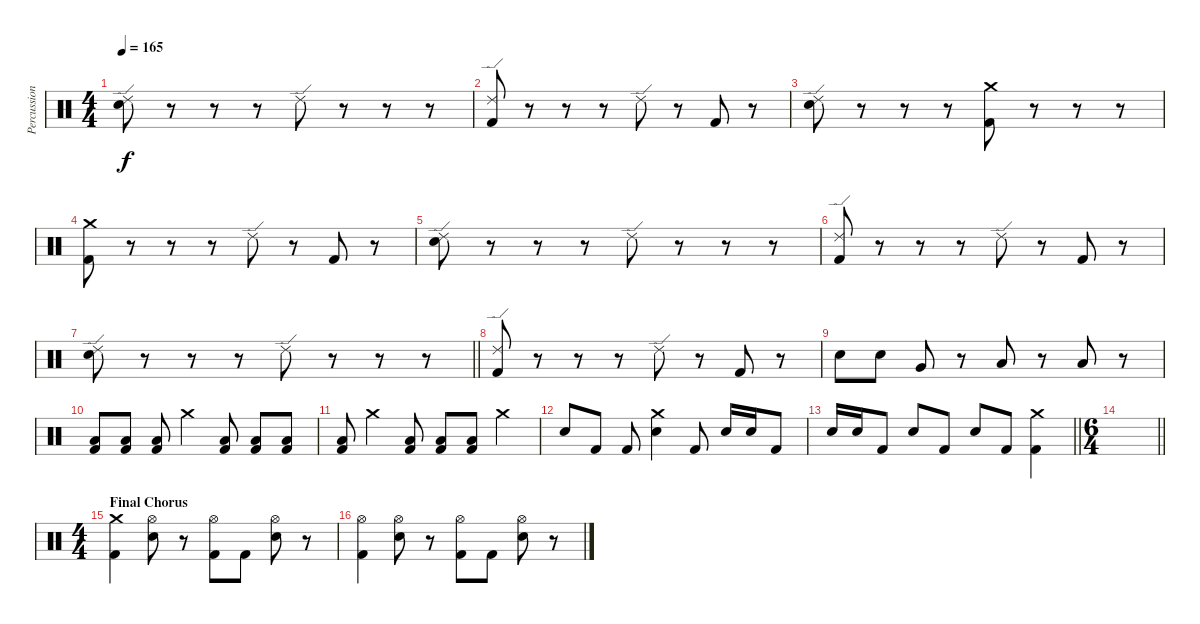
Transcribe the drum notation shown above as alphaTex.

\track ("Percussion" "Percussion") {instrument percussion}
\staff {score}
\articulation defaults
\ts (4 4)
\tempo 165
\clef neutral
\ks c
("Ride (edge) 2" "Electric Snare (hit)").8{dy f} r.8 r.8 r.8 "Ride (edge) 2".8 r.8 r.8 r.8 |
("Ride (edge) 2" "Kick (hit) 2").8 r.8 r.8 r.8 "Ride (edge) 2".8 r.8 "Kick (hit) 2".8 r.8 |
("Ride (edge) 2" "Electric Snare (hit)").8 r.8 r.8 r.8 ("Crash medium (hit)" "Kick (hit) 2").8 r.8 r.8 r.8 |
("Crash medium (hit)" "Kick (hit) 2").8 r.8 r.8 r.8 "Ride (edge) 2".8 r.8 "Kick (hit) 2".8 r.8 |
("Ride (edge) 2" "Electric Snare (hit)").8 r.8 r.8 r.8 "Ride (edge) 2".8 r.8 r.8 r.8 |
("Ride (edge) 2" "Kick (hit) 2").8 r.8 r.8 r.8 "Ride (edge) 2".8 r.8 "Kick (hit) 2".8 r.8 |
\barLineRight lightlight
("Ride (edge) 2" "Electric Snare (hit)").8 r.8 r.8 r.8 "Ride (edge) 2".8 r.8 r.8 r.8 |
("Ride (edge) 2" "Kick (hit) 2").8 r.8 r.8 r.8 "Ride (edge) 2".8 r.8 "Kick (hit) 2".8 r.8 |
"Electric Snare (hit)".8 "Electric Snare (hit)".8 "Very Low Tom (hit)".8 r.8 "Low Tom (hit)".8 r.8 "Low Tom (hit)".8 r.8 |
("Low Floor Tom (hit)" "Kick (hit) 2").8 ("Low Floor Tom (hit)" "Kick (hit) 2").8 ("Low Floor Tom (hit)" "Kick (hit) 2").8 "Crash medium (hit)".4 ("Low Floor Tom (hit)" "Kick (hit) 2").8 ("Low Floor Tom (hit)" "Kick (hit) 2").8 ("Low Floor Tom (hit)" "Kick (hit) 2").8 |
("Low Floor Tom (hit)" "Kick (hit) 2").8 "Crash medium (hit)".4 ("Low Floor Tom (hit)" "Kick (hit) 2").8 ("Low Floor Tom (hit)" "Kick (hit) 2").8 ("Low Floor Tom (hit)" "Kick (hit) 2").8 "Crash medium (hit)".4 |
"Electric Snare (hit)".8 "Kick (hit) 2".8 "Kick (hit) 2".8 ("Electric Snare (hit)" "Crash medium (hit)").4 "Kick (hit) 2".8 "Electric Snare (hit)".16 "Electric Snare (hit)".16 "Kick (hit) 2".8 |
\barLineRight lightlight "Electric Snare (hit)".16 "Electric Snare (hit)".16 "Kick (hit) 2".8 "Electric Snare (hit)".8 "Kick (hit) 2".8 "Electric Snare (hit)".8 "Kick (hit) 2".8
("Kick (hit) 2" "Crash medium (hit)").4 |
\ts (6 4)
\barLineRight lightlight
|
\ts (4 4)
\section ("" "Final Chorus")
("Crash medium (hit)" "Kick (hit) 2").4 ("Hi-Hat (open)" "Electric Snare (hit)").8 r.8 ("Hi-Hat (open)" "Kick (hit) 2").8 "Kick (hit) 2".8 ("Hi-Hat (open)" "Electric Snare (hit)").8 r.8 |
("Hi-Hat (open)" "Kick (hit) 2").4 ("Hi-Hat (open)" "Electric Snare (hit)").8 r.8 ("Hi-Hat (open)" "Kick (hit) 2").8 "Kick (hit) 2".8 ("Hi-Hat (open)" "Electric Snare (hit)").8 r.8
